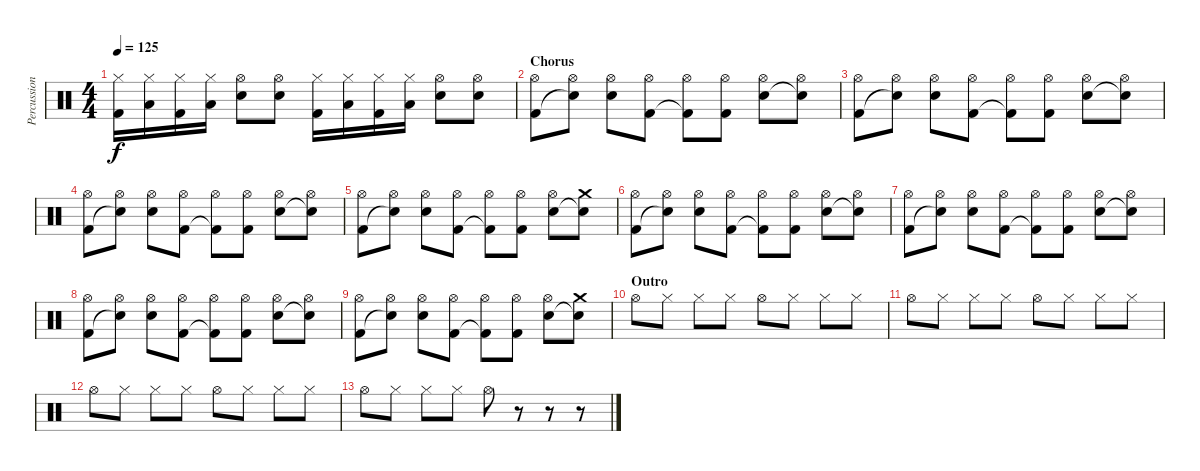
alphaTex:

\track ("Percussion" "Percussion") {instrument percussion}
\staff {score}
\articulation defaults
\ts (4 4)
\tempo 125
\clef neutral
\ks c
("Hi-Hat (closed)" "Kick (hit) 2").16{dy f} ("Hi-Hat (closed)" "Low Tom (hit)").16 ("Hi-Hat (closed)" "Kick (hit) 2").16 ("Hi-Hat (closed)" "Low Tom (hit)").16 ("Hi-Hat (open)" "Electric Snare (hit)").8 ("Hi-Hat (open)" "Electric Snare (hit)").8 ("Hi-Hat (closed)" "Kick (hit) 2").16 ("Hi-Hat (closed)" "Low Tom (hit)").16 ("Hi-Hat (closed)" "Kick (hit) 2").16 ("Hi-Hat (closed)" "Low Tom (hit)").16 ("Hi-Hat (open)" "Electric Snare (hit)").8 ("Hi-Hat (open)" "Electric Snare (hit)").8 |
\section ("" "Chorus")
("Hi-Hat (open)" "Kick (hit) 2").8 ("Hi-Hat (open)" "Snare (hit)"{t}).8 ("Hi-Hat (open)" "Electric Snare (hit)").8 ("Hi-Hat (open)" "Kick (hit) 2").8 ("Hi-Hat (open)" "Kick (hit) 2"{t}).8 ("Hi-Hat (open)" "Kick (hit) 2").8 ("Hi-Hat (open)" "Electric Snare (hit)").8 ("Hi-Hat (open)" "Snare (hit)"{t}).8 |
("Hi-Hat (open)" "Kick (hit) 2").8 ("Hi-Hat (open)" "Snare (hit)"{t}).8 ("Hi-Hat (open)" "Electric Snare (hit)").8 ("Hi-Hat (open)" "Kick (hit) 2").8 ("Hi-Hat (open)" "Kick (hit) 2"{t}).8 ("Hi-Hat (open)" "Kick (hit) 2").8 ("Hi-Hat (open)" "Electric Snare (hit)").8 ("Hi-Hat (open)" "Snare (hit)"{t}).8 |
("Hi-Hat (open)" "Kick (hit) 2").8 ("Hi-Hat (open)" "Snare (hit)"{t}).8 ("Hi-Hat (open)" "Electric Snare (hit)").8 ("Hi-Hat (open)" "Kick (hit) 2").8 ("Hi-Hat (open)" "Kick (hit) 2"{t}).8 ("Hi-Hat (open)" "Kick (hit) 2").8 ("Hi-Hat (open)" "Electric Snare (hit)").8 ("Hi-Hat (open)" "Snare (hit)"{t}).8 |
("Hi-Hat (open)" "Kick (hit) 2").8 ("Hi-Hat (open)" "Snare (hit)"{t}).8 ("Hi-Hat (open)" "Electric Snare (hit)").8 ("Hi-Hat (open)" "Kick (hit) 2").8 ("Hi-Hat (open)" "Kick (hit) 2"{t}).8 ("Hi-Hat (open)" "Kick (hit) 2").8 ("Hi-Hat (open)" "Electric Snare (hit)").8 ("Crash medium (hit)" "Snare (hit)"{t}).8 |
("Hi-Hat (open)" "Kick (hit) 2").8 ("Hi-Hat (open)" "Snare (hit)"{t}).8 ("Hi-Hat (open)" "Electric Snare (hit)").8 ("Hi-Hat (open)" "Kick (hit) 2").8 ("Hi-Hat (open)" "Kick (hit) 2"{t}).8 ("Hi-Hat (open)" "Kick (hit) 2").8 ("Hi-Hat (open)" "Electric Snare (hit)").8 ("Hi-Hat (open)" "Snare (hit)"{t}).8 |
("Hi-Hat (open)" "Kick (hit) 2").8 ("Hi-Hat (open)" "Snare (hit)"{t}).8 ("Hi-Hat (open)" "Electric Snare (hit)").8 ("Hi-Hat (open)" "Kick (hit) 2").8 ("Hi-Hat (open)" "Kick (hit) 2"{t}).8 ("Hi-Hat (open)" "Kick (hit) 2").8 ("Hi-Hat (open)" "Electric Snare (hit)").8 ("Hi-Hat (open)" "Snare (hit)"{t}).8 |
("Hi-Hat (open)" "Kick (hit) 2").8 ("Hi-Hat (open)" "Snare (hit)"{t}).8 ("Hi-Hat (open)" "Electric Snare (hit)").8 ("Hi-Hat (open)" "Kick (hit) 2").8 ("Hi-Hat (open)" "Kick (hit) 2"{t}).8 ("Hi-Hat (open)" "Kick (hit) 2").8 ("Hi-Hat (open)" "Electric Snare (hit)").8 ("Hi-Hat (open)" "Snare (hit)"{t}).8 |
("Hi-Hat (open)" "Kick (hit) 2").8 ("Hi-Hat (open)" "Snare (hit)"{t}).8 ("Hi-Hat (open)" "Electric Snare (hit)").8 ("Hi-Hat (open)" "Kick (hit) 2").8 ("Hi-Hat (open)" "Kick (hit) 2"{t}).8 ("Hi-Hat (open)" "Kick (hit) 2").8 ("Hi-Hat (open)" "Electric Snare (hit)").8 ("Crash medium (hit)" "Snare (hit)"{t}).8 |
\section ("" "Outro")
"Hi-Hat (open)".8 "Hi-Hat (closed)".8 "Hi-Hat (closed)".8 "Hi-Hat (closed)".8 "Hi-Hat (open)".8 "Hi-Hat (closed)".8 "Hi-Hat (closed)".8 "Hi-Hat (closed)".8 |
"Hi-Hat (open)".8 "Hi-Hat (closed)".8 "Hi-Hat (closed)".8 "Hi-Hat (closed)".8 "Hi-Hat (open)".8 "Hi-Hat (closed)".8 "Hi-Hat (closed)".8 "Hi-Hat (closed)".8 |
"Hi-Hat (open)".8 "Hi-Hat (closed)".8 "Hi-Hat (closed)".8 "Hi-Hat (closed)".8 "Hi-Hat (open)".8 "Hi-Hat (closed)".8 "Hi-Hat (closed)".8 "Hi-Hat (closed)".8 |
"Hi-Hat (open)".8 "Hi-Hat (closed)".8 "Hi-Hat (closed)".8 "Hi-Hat (closed)".8 "Hi-Hat (open)".8 r.8 r.8 r.8
